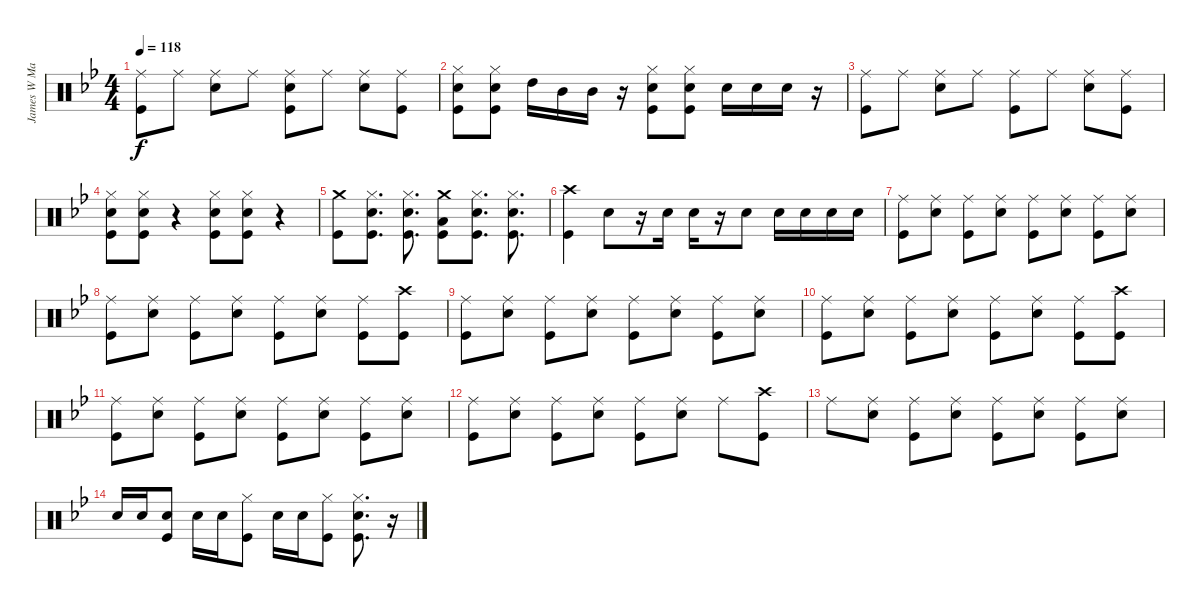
\track ("James W Marshall Drums" "James W Ma") {instrument percussion}
\staff {score}
\articulation defaults
\ts (4 4)
\tempo 118
\clef neutral
\ks gminor
("Ride (middle)" "Kick (hit)").8{dy f} "Ride (middle)".8 ("Ride (middle)" "Snare (hit) 2").8 "Ride (middle)".8 ("Ride (middle)" "Snare (hit) 2" "Kick (hit)").8 "Ride (middle)".8 ("Ride (middle)" "Snare (hit) 2").8 ("Ride (middle)" "Kick (hit)").8 |
("Hi-Hat (closed)" "Snare (hit) 2" "Kick (hit)").8 ("Hi-Hat (closed)" "Snare (hit) 2" "Kick (hit)").8 "High Tom (hit)".16 "Mid Tom (hit)".16 "Mid Tom (hit)".16 r.16 ("Hi-Hat (closed)" "Snare (hit) 2" "Kick (hit)").8 ("Hi-Hat (closed)" "Snare (hit) 2" "Kick (hit)").8 "Snare (hit) 2".16 "Snare (hit) 2".16 "Snare (hit) 2".16 r.16 |
("Ride (middle)" "Kick (hit)").8 "Ride (middle)".8 ("Ride (middle)" "Snare (hit) 2").8 "Ride (middle)".8 ("Ride (middle)" "Kick (hit)").8 "Ride (middle)".8 ("Ride (middle)" "Snare (hit) 2").8 ("Ride (middle)" "Kick (hit)").8 |
("Hi-Hat (closed)" "Snare (hit) 2" "Kick (hit)").8 ("Hi-Hat (closed)" "Snare (hit) 2" "Kick (hit)").8 r.4 ("Hi-Hat (closed)" "Snare (hit) 2" "Kick (hit)").8 ("Hi-Hat (closed)" "Snare (hit) 2" "Kick (hit)").8 r.4 |
("Crash medium (hit)" "Kick (hit)").8 ("Hi-Hat (closed)" "Snare (hit) 2" "Kick (hit)").8{d} ("Hi-Hat (closed)" "Snare (hit) 2" "Kick (hit)").8{d} ("Crash medium (hit)" "Low Floor Tom (hit)" "Kick (hit)").8 ("Hi-Hat (closed)" "Snare (hit) 2" "Kick (hit)").8{d} ("Hi-Hat (closed)" "Snare (hit) 2" "Kick (hit)").8{d} |
("Crash high (hit)" "Kick (hit)").4 "Snare (hit) 2".8 r.16 "Snare (hit) 2".16 "Snare (hit) 2".16 r.16 "Snare (hit) 2".8 "Snare (hit) 2".16 "Snare (hit) 2".16 "Snare (hit) 2".16 "Snare (hit) 2".16 |
("Ride (middle)" "Kick (hit)").8 ("Ride (middle)" "Snare (hit) 2").8 ("Ride (middle)" "Kick (hit)").8 ("Ride (middle)" "Snare (hit) 2").8 ("Ride (middle)" "Kick (hit)").8 ("Ride (middle)" "Snare (hit) 2").8 ("Ride (middle)" "Kick (hit)").8 ("Ride (middle)" "Snare (hit) 2").8 |
("Ride (middle)" "Kick (hit)").8 ("Ride (middle)" "Snare (hit) 2").8 ("Ride (middle)" "Kick (hit)").8 ("Ride (middle)" "Snare (hit) 2").8 ("Ride (middle)" "Kick (hit)").8 ("Ride (middle)" "Snare (hit) 2").8 ("Ride (middle)" "Kick (hit)").8 ("Crash high (hit)" "Kick (hit)").8 |
("Ride (middle)" "Kick (hit)").8 ("Ride (middle)" "Snare (hit) 2").8 ("Ride (middle)" "Kick (hit)").8 ("Ride (middle)" "Snare (hit) 2").8 ("Ride (middle)" "Kick (hit)").8 ("Ride (middle)" "Snare (hit) 2").8 ("Ride (middle)" "Kick (hit)").8 ("Ride (middle)" "Snare (hit) 2").8 |
("Ride (middle)" "Kick (hit)").8 ("Ride (middle)" "Snare (hit) 2").8 ("Ride (middle)" "Kick (hit)").8 ("Ride (middle)" "Snare (hit) 2").8 ("Ride (middle)" "Kick (hit)").8 ("Ride (middle)" "Snare (hit) 2").8 ("Ride (middle)" "Kick (hit)").8 ("Crash high (hit)" "Kick (hit)").8 |
("Ride (middle)" "Kick (hit)").8 ("Ride (middle)" "Snare (hit) 2").8 ("Ride (middle)" "Kick (hit)").8 ("Ride (middle)" "Snare (hit) 2").8 ("Ride (middle)" "Kick (hit)").8 ("Ride (middle)" "Snare (hit) 2").8 ("Ride (middle)" "Kick (hit)").8 ("Ride (middle)" "Snare (hit) 2").8 |
("Ride (middle)" "Kick (hit)").8 ("Ride (middle)" "Snare (hit) 2").8 ("Ride (middle)" "Kick (hit)").8 ("Ride (middle)" "Snare (hit) 2").8 ("Ride (middle)" "Kick (hit)").8 ("Ride (middle)" "Snare (hit) 2").8 "Ride (middle)".8 ("Crash high (hit)" "Kick (hit)").8 |
"Ride (middle)".8 ("Ride (middle)" "Snare (hit) 2").8 ("Ride (middle)" "Kick (hit)").8 ("Ride (middle)" "Snare (hit) 2").8 ("Ride (middle)" "Kick (hit)").8 ("Ride (middle)" "Snare (hit) 2").8 ("Ride (middle)" "Kick (hit)").8 ("Ride (middle)" "Snare (hit) 2").8 |
"Snare (hit) 2".16 "Snare (hit) 2".16 ("Snare (hit) 2" "Kick (hit)").8 "Snare (hit) 2".16 "Snare (hit) 2".16 ("Hi-Hat (closed)" "Kick (hit)").8 "Snare (hit) 2".16 "Snare (hit) 2".16 ("Hi-Hat (closed)" "Kick (hit)").8 ("Hi-Hat (closed)" "Snare (hit) 2" "Kick (hit)").8{d} r.16
